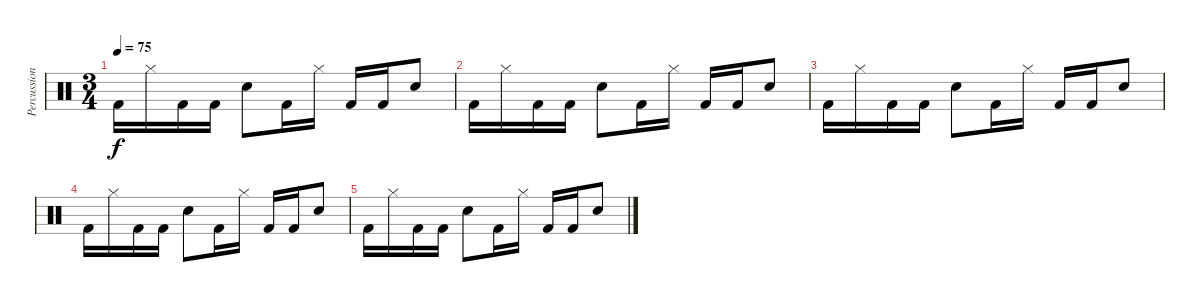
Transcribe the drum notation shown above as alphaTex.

\track ("Percussions" "Percussion") {instrument percussion}
\staff {score}
\articulation defaults
\ts (3 4)
\tempo 75
\clef neutral
\ks c "Kick (hit) 2".16{dy f} "Hi-Hat (closed)".16 "Kick (hit) 2".16 "Kick (hit) 2".16 "Snare (hit) 2".8 "Kick (hit) 2".16 "Hi-Hat (closed)".16 "Kick (hit) 2".16 "Kick (hit) 2".16 "Snare (hit) 2".8
|
"Kick (hit) 2".16 "Hi-Hat (closed)".16 "Kick (hit) 2".16 "Kick (hit) 2".16 "Snare (hit) 2".8 "Kick (hit) 2".16 "Hi-Hat (closed)".16 "Kick (hit) 2".16 "Kick (hit) 2".16 "Snare (hit) 2".8 |
"Kick (hit) 2".16 "Hi-Hat (closed)".16 "Kick (hit) 2".16 "Kick (hit) 2".16 "Snare (hit) 2".8 "Kick (hit) 2".16 "Hi-Hat (closed)".16 "Kick (hit) 2".16 "Kick (hit) 2".16 "Snare (hit) 2".8 |
"Kick (hit) 2".16 "Hi-Hat (closed)".16 "Kick (hit) 2".16 "Kick (hit) 2".16 "Snare (hit) 2".8 "Kick (hit) 2".16 "Hi-Hat (closed)".16 "Kick (hit) 2".16 "Kick (hit) 2".16 "Snare (hit) 2".8 |
"Kick (hit) 2".16 "Hi-Hat (closed)".16 "Kick (hit) 2".16 "Kick (hit) 2".16 "Snare (hit) 2".8 "Kick (hit) 2".16 "Hi-Hat (closed)".16 "Kick (hit) 2".16 "Kick (hit) 2".16 "Snare (hit) 2".8
